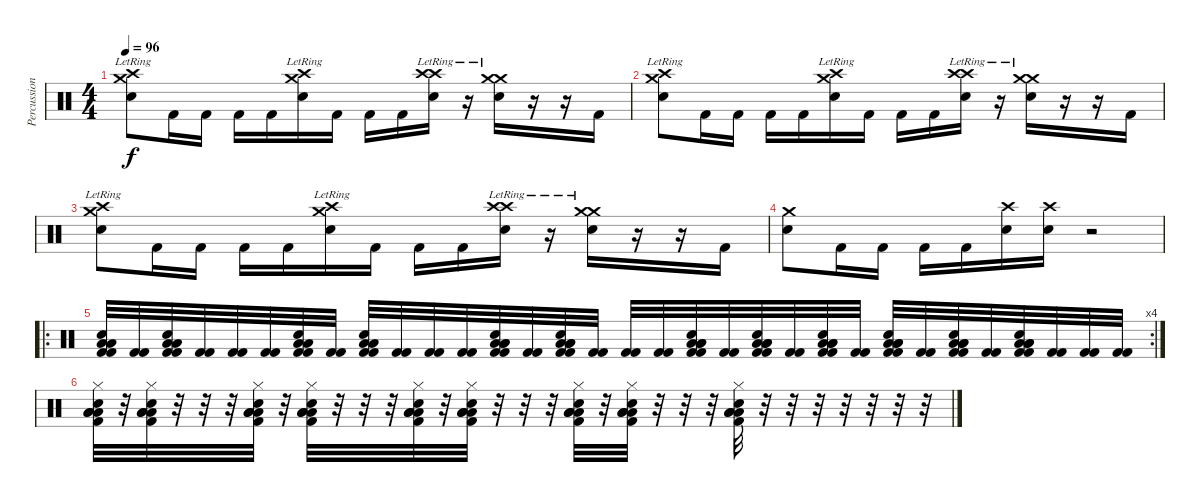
\track ("Percussion" "Percussion") {instrument percussion}
\staff {score}
\articulation defaults
\ts (4 4)
\tempo 96
\clef neutral
\ks c
("Crash medium (hit)"{lr} "Crash high (hit)"{lr} "Electric Snare (hit)").8{dy f} "Kick (hit) 2".16 "Kick (hit) 2".16 "Kick (hit) 2".16 "Kick (hit) 2".16 ("Crash medium (hit)"{lr} "Crash high (hit)"{lr} "Electric Snare (hit)").16 "Kick (hit) 2".16 "Kick (hit) 2".16 "Kick (hit) 2".16 ("Crash high (hit)"{lr} "Crash high (hit)"{lr} "Electric Snare (hit)").16 r.16 ("Crash medium (hit)"{lr} "Crash medium (hit)"{lr} "Electric Snare (hit)").16 r.16 r.16 "Kick (hit) 2".16 |
("Crash medium (hit)"{lr} "Crash high (hit)"{lr} "Electric Snare (hit)").8 "Kick (hit) 2".16 "Kick (hit) 2".16 "Kick (hit) 2".16 "Kick (hit) 2".16 ("Crash medium (hit)"{lr} "Crash high (hit)"{lr} "Electric Snare (hit)").16 "Kick (hit) 2".16 "Kick (hit) 2".16 "Kick (hit) 2".16 ("Crash high (hit)"{lr} "Crash high (hit)"{lr} "Electric Snare (hit)").16 r.16 ("Crash medium (hit)"{lr} "Crash medium (hit)"{lr} "Electric Snare (hit)").16 r.16 r.16 "Kick (hit) 2".16 |
("Crash medium (hit)"{lr} "Crash high (hit)"{lr} "Electric Snare (hit)").8 "Kick (hit) 2".16 "Kick (hit) 2".16 "Kick (hit) 2".16 "Kick (hit) 2".16 ("Crash medium (hit)"{lr} "Crash high (hit)"{lr} "Electric Snare (hit)").16 "Kick (hit) 2".16 "Kick (hit) 2".16 "Kick (hit) 2".16 ("Crash high (hit)"{lr} "Crash high (hit)"{lr} "Electric Snare (hit)").16 r.16 ("Crash medium (hit)"{lr} "Crash medium (hit)"{lr} "Electric Snare (hit)").16 r.16 r.16 "Kick (hit) 2".16 |
("Crash medium (hit)" "Electric Snare (hit)").8 "Kick (hit) 2".16 "Kick (hit) 2".16 "Kick (hit) 2".16 "Kick (hit) 2".16 ("Crash high (hit)" "Electric Snare (hit)").16 ("Crash high (hit)" "Electric Snare (hit)").16 r.2 |
\ro
\rc 4
("Low Tom (hit)" "Low Tom (hit)" "Electric Snare (hit)" "Kick (hit) 2" "Kick (hit) 2").32 ("Kick (hit) 2" "Kick (hit) 2").32 ("Low Tom (hit)" "Low Tom (hit)" "Electric Snare (hit)" "Kick (hit) 2" "Kick (hit) 2").32 ("Kick (hit) 2" "Kick (hit) 2").32 ("Kick (hit) 2" "Kick (hit) 2").32 ("Kick (hit) 2" "Kick (hit) 2").32 ("Low Tom (hit)" "Low Tom (hit)" "Electric Snare (hit)" "Kick (hit) 2" "Kick (hit) 2").32 ("Kick (hit) 2" "Kick (hit) 2").32 ("Low Tom (hit)" "Low Tom (hit)" "Electric Snare (hit)" "Kick (hit) 2" "Kick (hit) 2").32 ("Kick (hit) 2" "Kick (hit) 2").32 ("Kick (hit) 2" "Kick (hit) 2").32 ("Kick (hit) 2" "Kick (hit) 2").32 ("Low Floor Tom (hit)" "Low Floor Tom (hit)" "Electric Snare (hit)" "Low Floor Tom (hit)" "Kick (hit) 2" "Kick (hit) 2").32 ("Kick (hit) 2" "Kick (hit) 2").32 ("Low Floor Tom (hit)" "Low Floor Tom (hit)" "Electric Snare (hit)" "Low Floor Tom (hit)" "Kick (hit) 2" "Kick (hit) 2").32 ("Kick (hit) 2" "Kick (hit) 2").32 ("Kick (hit) 2" "Kick (hit) 2").32 ("Kick (hit) 2" "Kick (hit) 2").32 ("Low Floor Tom (hit)" "Low Floor Tom (hit)" "Electric Snare (hit)" "Low Floor Tom (hit)" "Kick (hit) 2" "Kick (hit) 2").32 ("Kick (hit) 2" "Kick (hit) 2").32 ("Low Floor Tom (hit)" "Low Floor Tom (hit)" "Electric Snare (hit)" "Low Floor Tom (hit)" "Kick (hit) 2" "Kick (hit) 2").32 ("Kick (hit) 2" "Kick (hit) 2").32 ("Low Floor Tom (hit)" "Low Floor Tom (hit)" "Electric Snare (hit)" "Low Floor Tom (hit)" "Kick (hit) 2" "Kick (hit) 2").32 ("Kick (hit) 2" "Kick (hit) 2").32 ("Low Floor Tom (hit)" "Low Floor Tom (hit)" "Electric Snare (hit)" "Low Floor Tom (hit)" "Kick (hit) 2" "Kick (hit) 2").32 ("Kick (hit) 2" "Kick (hit) 2").32 ("Low Floor Tom (hit)" "Low Floor Tom (hit)" "Electric Snare (hit)" "Low Floor Tom (hit)" "Kick (hit) 2" "Kick (hit) 2").32 ("Kick (hit) 2" "Kick (hit) 2").32 ("Low Floor Tom (hit)" "Low Floor Tom (hit)" "Electric Snare (hit)" "Low Floor Tom (hit)" "Kick (hit) 2" "Kick (hit) 2").32 ("Kick (hit) 2" "Kick (hit) 2").32 ("Kick (hit) 2" "Kick (hit) 2").32 ("Kick (hit) 2" "Kick (hit) 2").32 |
("Electric Snare (hit)" "Low Tom (hit)" "Low Tom (hit)" "Low Tom (hit)" "Hi-Hat (closed)" "Kick (hit) 2").32 r.32 ("Low Tom (hit)" "Electric Snare (hit)" "Low Tom (hit)" "Low Tom (hit)" "Hi-Hat (closed)" "Kick (hit) 2").32 r.32 r.32 r.32 ("Low Tom (hit)" "Low Tom (hit)" "Electric Snare (hit)" "Low Tom (hit)" "Hi-Hat (closed)" "Kick (hit) 2").32 r.32 ("Low Tom (hit)" "Low Tom (hit)" "Electric Snare (hit)" "Low Tom (hit)" "Hi-Hat (closed)" "Kick (hit) 2").32 r.32 r.32 r.32 ("Low Tom (hit)" "Low Tom (hit)" "Low Tom (hit)" "Electric Snare (hit)" "Hi-Hat (closed)" "Kick (hit) 2").32 r.32 ("Low Tom (hit)" "Low Tom (hit)" "Electric Snare (hit)" "Low Tom (hit)" "Hi-Hat (closed)" "Kick (hit) 2").32 r.32 r.32 r.32 ("Low Tom (hit)" "Low Tom (hit)" "Electric Snare (hit)" "Low Tom (hit)" "Hi-Hat (closed)" "Kick (hit) 2").32 r.32 ("Low Tom (hit)" "Low Tom (hit)" "Electric Snare (hit)" "Low Tom (hit)" "Hi-Hat (closed)" "Kick (hit) 2").32 r.32 r.32 r.32 ("Low Tom (hit)" "Low Tom (hit)" "Electric Snare (hit)" "Low Tom (hit)" "Hi-Hat (closed)" "Kick (hit) 2").32 r.32 r.32 r.32 r.32 r.32 r.32 r.32
